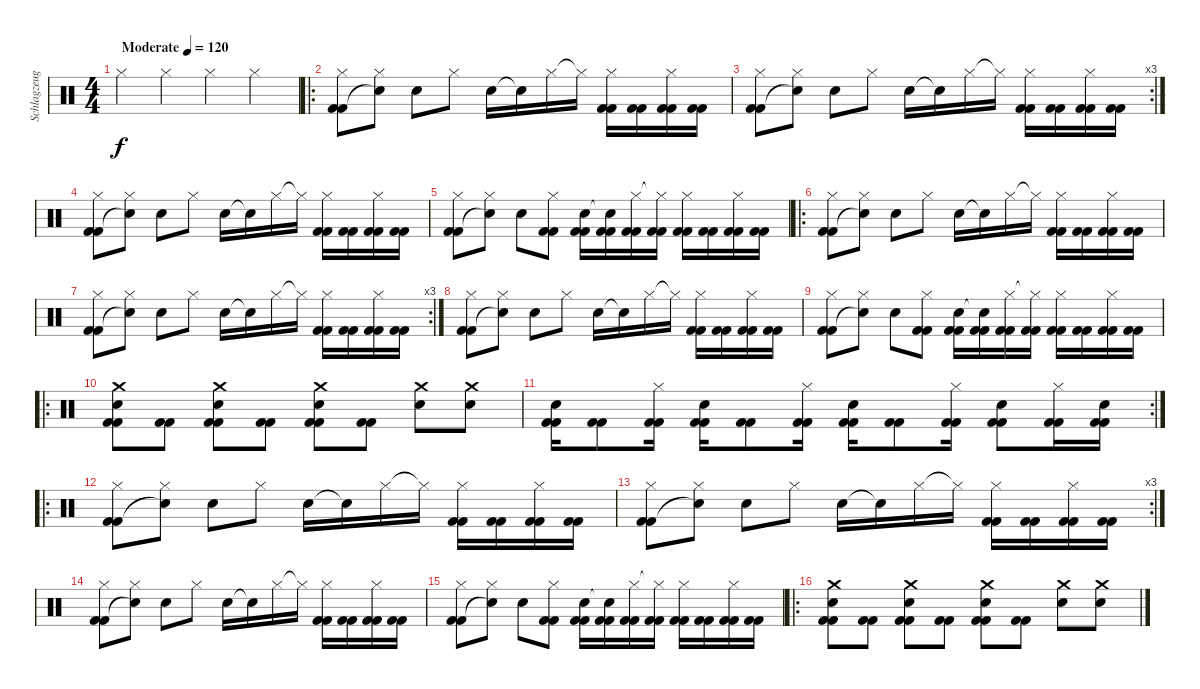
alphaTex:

\track ("Schlagzeug" "Schlagzeug") {instrument percussion}
\staff {score}
\articulation defaults
\ts (4 4)
\tempo (120 "Moderate")
\clef neutral
\ks c "Hi-Hat (closed)".4{dy f} "Hi-Hat (closed)".4 "Hi-Hat (closed)".4 "Hi-Hat (closed)".4
|
\ro
("Hi-Hat (closed)" "Kick (hit) 2" "Kick (hit) 2").8 ("Hi-Hat (closed)" "Snare (hit)"{t}).8 "Snare (hit) 2".8 "Hi-Hat (closed)".8 "Snare (hit) 2".16 "Snare (hit)"{t}.16 "Hi-Hat (closed)".16 "Hi-Hat (closed)"{t}.16 ("Hi-Hat (closed)" "Kick (hit) 2" "Kick (hit) 2").16 ("Kick (hit) 2" "Kick (hit) 2").16 ("Hi-Hat (closed)" "Kick (hit) 2" "Kick (hit) 2").16 ("Kick (hit) 2" "Kick (hit) 2").16 |
\rc 3
("Hi-Hat (closed)" "Kick (hit) 2" "Kick (hit) 2").8 ("Hi-Hat (closed)" "Snare (hit)"{t}).8 "Snare (hit) 2".8 "Hi-Hat (closed)".8 "Snare (hit) 2".16 "Snare (hit)"{t}.16 "Hi-Hat (closed)".16 "Hi-Hat (closed)"{t}.16 ("Hi-Hat (closed)" "Kick (hit) 2" "Kick (hit) 2").16 ("Kick (hit) 2" "Kick (hit) 2").16 ("Hi-Hat (closed)" "Kick (hit) 2" "Kick (hit) 2").16 ("Kick (hit) 2" "Kick (hit) 2").16 |
("Hi-Hat (closed)" "Kick (hit) 2" "Kick (hit) 2").8 ("Hi-Hat (closed)" "Snare (hit)"{t}).8 "Snare (hit) 2".8 "Hi-Hat (closed)".8 "Snare (hit) 2".16 "Snare (hit)"{t}.16 "Hi-Hat (closed)".16 "Hi-Hat (closed)"{t}.16 ("Hi-Hat (closed)" "Kick (hit) 2" "Kick (hit) 2").16 ("Kick (hit) 2" "Kick (hit) 2").16 ("Hi-Hat (closed)" "Kick (hit) 2" "Kick (hit) 2").16 ("Kick (hit) 2" "Kick (hit) 2").16 |
("Hi-Hat (closed)" "Kick (hit) 2" "Kick (hit) 2").8 ("Hi-Hat (closed)" "Snare (hit)"{t}).8 "Snare (hit) 2".8 ("Hi-Hat (closed)" "Kick (hit) 2" "Kick (hit) 2").8 ("Snare (hit) 2" "Kick (hit) 2" "Kick (hit) 2").16 ("Snare (hit)"{t} "Kick (hit) 2" "Kick (hit) 2").16 ("Hi-Hat (closed)" "Kick (hit) 2" "Kick (hit) 2").16 ("Hi-Hat (closed)"{t} "Kick (hit) 2" "Kick (hit) 2").16 ("Hi-Hat (closed)" "Kick (hit) 2" "Kick (hit) 2").16 ("Kick (hit) 2" "Kick (hit) 2").16 ("Hi-Hat (closed)" "Kick (hit) 2" "Kick (hit) 2").16 ("Kick (hit) 2" "Kick (hit) 2").16 |
\ro
("Hi-Hat (closed)" "Kick (hit) 2" "Kick (hit) 2").8 ("Hi-Hat (closed)" "Snare (hit)"{t}).8 "Snare (hit) 2".8 "Hi-Hat (closed)".8 "Snare (hit) 2".16 "Snare (hit)"{t}.16 "Hi-Hat (closed)".16 "Hi-Hat (closed)"{t}.16 ("Hi-Hat (closed)" "Kick (hit) 2" "Kick (hit) 2").16 ("Kick (hit) 2" "Kick (hit) 2").16 ("Hi-Hat (closed)" "Kick (hit) 2" "Kick (hit) 2").16 ("Kick (hit) 2" "Kick (hit) 2").16 |
\rc 3
("Hi-Hat (closed)" "Kick (hit) 2" "Kick (hit) 2").8 ("Hi-Hat (closed)" "Snare (hit)"{t}).8 "Snare (hit) 2".8 "Hi-Hat (closed)".8 "Snare (hit) 2".16 "Snare (hit)"{t}.16 "Hi-Hat (closed)".16 "Hi-Hat (closed)"{t}.16 ("Hi-Hat (closed)" "Kick (hit) 2" "Kick (hit) 2").16 ("Kick (hit) 2" "Kick (hit) 2").16 ("Hi-Hat (closed)" "Kick (hit) 2" "Kick (hit) 2").16 ("Kick (hit) 2" "Kick (hit) 2").16 |
("Hi-Hat (closed)" "Kick (hit) 2" "Kick (hit) 2").8 ("Hi-Hat (closed)" "Snare (hit)"{t}).8 "Snare (hit) 2".8 "Hi-Hat (closed)".8 "Snare (hit) 2".16 "Snare (hit)"{t}.16 "Hi-Hat (closed)".16 "Hi-Hat (closed)"{t}.16 ("Hi-Hat (closed)" "Kick (hit) 2" "Kick (hit) 2").16 ("Kick (hit) 2" "Kick (hit) 2").16 ("Hi-Hat (closed)" "Kick (hit) 2" "Kick (hit) 2").16 ("Kick (hit) 2" "Kick (hit) 2").16 |
("Hi-Hat (closed)" "Kick (hit) 2" "Kick (hit) 2").8 ("Hi-Hat (closed)" "Snare (hit)"{t}).8 "Snare (hit) 2".8 ("Hi-Hat (closed)" "Kick (hit) 2" "Kick (hit) 2").8 ("Snare (hit) 2" "Kick (hit) 2" "Kick (hit) 2").16 ("Snare (hit)"{t} "Kick (hit) 2" "Kick (hit) 2").16 ("Hi-Hat (closed)" "Kick (hit) 2" "Kick (hit) 2").16 ("Hi-Hat (closed)"{t} "Kick (hit) 2" "Kick (hit) 2").16 ("Hi-Hat (closed)" "Kick (hit) 2" "Kick (hit) 2").16 ("Kick (hit) 2" "Kick (hit) 2").16 ("Hi-Hat (closed)" "Kick (hit) 2" "Kick (hit) 2").16 ("Kick (hit) 2" "Kick (hit) 2").16 |
\ro
("Crash medium (hit)" "Snare (hit) 2" "Kick (hit) 2" "Kick (hit) 2").8 ("Kick (hit) 2" "Kick (hit) 2").8 ("Crash medium (hit)" "Snare (hit) 2" "Kick (hit) 2" "Kick (hit) 2").8 ("Kick (hit) 2" "Kick (hit) 2").8 ("Crash medium (hit)" "Snare (hit) 2" "Kick (hit) 2" "Kick (hit) 2").8 ("Kick (hit) 2" "Kick (hit) 2").8 ("Crash medium (hit)" "Snare (hit) 2").8 ("Crash medium (hit)" "Snare (hit) 2").8 |
\rc 2
("Snare (hit) 2" "Kick (hit) 2" "Kick (hit) 2").16 ("Kick (hit) 2" "Kick (hit) 2").8 ("Hi-Hat (closed)" "Kick (hit) 2" "Kick (hit) 2").16 ("Snare (hit) 2" "Kick (hit) 2" "Kick (hit) 2").16 ("Kick (hit) 2" "Kick (hit) 2").8 ("Hi-Hat (closed)" "Kick (hit) 2" "Kick (hit) 2").16 ("Snare (hit) 2" "Kick (hit) 2" "Kick (hit) 2").16 ("Kick (hit) 2" "Kick (hit) 2").8 ("Hi-Hat (closed)" "Kick (hit) 2" "Kick (hit) 2").16 ("Snare (hit) 2" "Kick (hit) 2" "Kick (hit) 2").8 ("Hi-Hat (closed)" "Kick (hit) 2" "Kick (hit) 2").16 ("Snare (hit) 2" "Kick (hit) 2" "Kick (hit) 2").16 |
\ro
("Hi-Hat (closed)" "Kick (hit) 2" "Kick (hit) 2").8 ("Hi-Hat (closed)" "Snare (hit)"{t}).8 "Snare (hit) 2".8 "Hi-Hat (closed)".8 "Snare (hit) 2".16 "Snare (hit)"{t}.16 "Hi-Hat (closed)".16 "Hi-Hat (closed)"{t}.16 ("Hi-Hat (closed)" "Kick (hit) 2" "Kick (hit) 2").16 ("Kick (hit) 2" "Kick (hit) 2").16 ("Hi-Hat (closed)" "Kick (hit) 2" "Kick (hit) 2").16 ("Kick (hit) 2" "Kick (hit) 2").16 |
\rc 3
("Hi-Hat (closed)" "Kick (hit) 2" "Kick (hit) 2").8 ("Hi-Hat (closed)" "Snare (hit)"{t}).8 "Snare (hit) 2".8 "Hi-Hat (closed)".8 "Snare (hit) 2".16 "Snare (hit)"{t}.16 "Hi-Hat (closed)".16 "Hi-Hat (closed)"{t}.16 ("Hi-Hat (closed)" "Kick (hit) 2" "Kick (hit) 2").16 ("Kick (hit) 2" "Kick (hit) 2").16 ("Hi-Hat (closed)" "Kick (hit) 2" "Kick (hit) 2").16 ("Kick (hit) 2" "Kick (hit) 2").16 |
("Hi-Hat (closed)" "Kick (hit) 2" "Kick (hit) 2").8 ("Hi-Hat (closed)" "Snare (hit)"{t}).8 "Snare (hit) 2".8 "Hi-Hat (closed)".8 "Snare (hit) 2".16 "Snare (hit)"{t}.16 "Hi-Hat (closed)".16 "Hi-Hat (closed)"{t}.16 ("Hi-Hat (closed)" "Kick (hit) 2" "Kick (hit) 2").16 ("Kick (hit) 2" "Kick (hit) 2").16 ("Hi-Hat (closed)" "Kick (hit) 2" "Kick (hit) 2").16 ("Kick (hit) 2" "Kick (hit) 2").16 |
("Hi-Hat (closed)" "Kick (hit) 2" "Kick (hit) 2").8 ("Hi-Hat (closed)" "Snare (hit)"{t}).8 "Snare (hit) 2".8 ("Hi-Hat (closed)" "Kick (hit) 2" "Kick (hit) 2").8 ("Snare (hit) 2" "Kick (hit) 2" "Kick (hit) 2").16 ("Snare (hit)"{t} "Kick (hit) 2" "Kick (hit) 2").16 ("Hi-Hat (closed)" "Kick (hit) 2" "Kick (hit) 2").16 ("Hi-Hat (closed)"{t} "Kick (hit) 2" "Kick (hit) 2").16 ("Hi-Hat (closed)" "Kick (hit) 2" "Kick (hit) 2").16 ("Kick (hit) 2" "Kick (hit) 2").16 ("Hi-Hat (closed)" "Kick (hit) 2" "Kick (hit) 2").16 ("Kick (hit) 2" "Kick (hit) 2").16 |
\ro
("Crash medium (hit)" "Snare (hit) 2" "Kick (hit) 2" "Kick (hit) 2").8 ("Kick (hit) 2" "Kick (hit) 2").8 ("Crash medium (hit)" "Snare (hit) 2" "Kick (hit) 2" "Kick (hit) 2").8 ("Kick (hit) 2" "Kick (hit) 2").8 ("Crash medium (hit)" "Snare (hit) 2" "Kick (hit) 2" "Kick (hit) 2").8 ("Kick (hit) 2" "Kick (hit) 2").8 ("Crash medium (hit)" "Snare (hit) 2").8 ("Crash medium (hit)" "Snare (hit) 2").8
